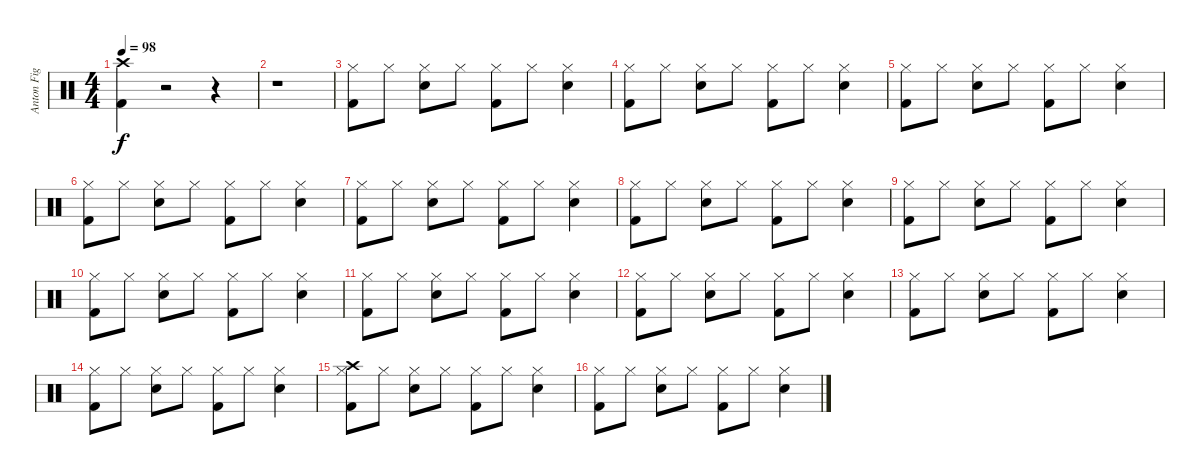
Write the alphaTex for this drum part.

\track ("Anton Fig" "Anton Fig") {instrument percussion}
\staff {score}
\articulation defaults
\ts (4 4)
\tempo 98
\clef neutral
\ks c
("Crash high (hit)" "Kick (hit) 2").4{dy f} r.2 r.4 |
r.1 |
("Hi-Hat (closed)" "Kick (hit) 2").8 "Hi-Hat (closed)".8 ("Hi-Hat (closed)" "Snare (hit) 2").8 "Hi-Hat (closed)".8 ("Hi-Hat (closed)" "Kick (hit) 2").8 "Hi-Hat (closed)".8 ("Hi-Hat (closed)" "Snare (hit) 2").4 |
("Hi-Hat (closed)" "Kick (hit) 2").8 "Hi-Hat (closed)".8 ("Hi-Hat (closed)" "Snare (hit) 2").8 "Hi-Hat (closed)".8 ("Hi-Hat (closed)" "Kick (hit) 2").8 "Hi-Hat (closed)".8 ("Hi-Hat (closed)" "Snare (hit) 2").4 |
("Hi-Hat (closed)" "Kick (hit) 2").8 "Hi-Hat (closed)".8 ("Hi-Hat (closed)" "Snare (hit) 2").8 "Hi-Hat (closed)".8 ("Hi-Hat (closed)" "Kick (hit) 2").8 "Hi-Hat (closed)".8 ("Hi-Hat (closed)" "Snare (hit) 2").4 |
("Hi-Hat (closed)" "Kick (hit) 2").8 "Hi-Hat (closed)".8 ("Hi-Hat (closed)" "Snare (hit) 2").8 "Hi-Hat (closed)".8 ("Hi-Hat (closed)" "Kick (hit) 2").8 "Hi-Hat (closed)".8 ("Hi-Hat (closed)" "Snare (hit) 2").4 |
("Hi-Hat (closed)" "Kick (hit) 2").8 "Hi-Hat (closed)".8 ("Hi-Hat (closed)" "Snare (hit) 2").8 "Hi-Hat (closed)".8 ("Hi-Hat (closed)" "Kick (hit) 2").8 "Hi-Hat (closed)".8 ("Hi-Hat (closed)" "Snare (hit) 2").4 |
("Hi-Hat (closed)" "Kick (hit) 2").8 "Hi-Hat (closed)".8 ("Hi-Hat (closed)" "Snare (hit) 2").8 "Hi-Hat (closed)".8 ("Hi-Hat (closed)" "Kick (hit) 2").8 "Hi-Hat (closed)".8 ("Hi-Hat (closed)" "Snare (hit) 2").4 |
("Hi-Hat (closed)" "Kick (hit) 2").8 "Hi-Hat (closed)".8 ("Hi-Hat (closed)" "Snare (hit) 2").8 "Hi-Hat (closed)".8 ("Hi-Hat (closed)" "Kick (hit) 2").8 "Hi-Hat (closed)".8 ("Hi-Hat (closed)" "Snare (hit) 2").4 |
("Hi-Hat (closed)" "Kick (hit) 2").8 "Hi-Hat (closed)".8 ("Hi-Hat (closed)" "Snare (hit) 2").8 "Hi-Hat (closed)".8 ("Hi-Hat (closed)" "Kick (hit) 2").8 "Hi-Hat (closed)".8 ("Hi-Hat (closed)" "Snare (hit) 2").4 |
("Hi-Hat (closed)" "Kick (hit) 2").8 "Hi-Hat (closed)".8 ("Hi-Hat (closed)" "Snare (hit) 2").8 "Hi-Hat (closed)".8 ("Hi-Hat (closed)" "Kick (hit) 2").8 "Hi-Hat (closed)".8 ("Hi-Hat (closed)" "Snare (hit) 2").4 |
("Hi-Hat (closed)" "Kick (hit) 2").8 "Hi-Hat (closed)".8 ("Hi-Hat (closed)" "Snare (hit) 2").8 "Hi-Hat (closed)".8 ("Hi-Hat (closed)" "Kick (hit) 2").8 "Hi-Hat (closed)".8 ("Hi-Hat (closed)" "Snare (hit) 2").4 |
("Hi-Hat (closed)" "Kick (hit) 2").8 "Hi-Hat (closed)".8 ("Hi-Hat (closed)" "Snare (hit) 2").8 "Hi-Hat (closed)".8 ("Hi-Hat (closed)" "Kick (hit) 2").8 "Hi-Hat (closed)".8 ("Hi-Hat (closed)" "Snare (hit) 2").4 |
("Hi-Hat (closed)" "Kick (hit) 2").8 "Hi-Hat (closed)".8 ("Hi-Hat (closed)" "Snare (hit) 2").8 "Hi-Hat (closed)".8 ("Hi-Hat (closed)" "Kick (hit) 2").8 "Hi-Hat (closed)".8 ("Hi-Hat (closed)" "Snare (hit) 2").4 |
("Hi-Hat (closed)" "Crash high (hit)" "Kick (hit) 2").8 "Hi-Hat (closed)".8 ("Hi-Hat (closed)" "Snare (hit) 2").8 "Hi-Hat (closed)".8 ("Hi-Hat (closed)" "Kick (hit) 2").8 "Hi-Hat (closed)".8 ("Hi-Hat (closed)" "Snare (hit) 2").4 |
("Hi-Hat (closed)" "Kick (hit) 2").8 "Hi-Hat (closed)".8 ("Hi-Hat (closed)" "Snare (hit) 2").8 "Hi-Hat (closed)".8 ("Hi-Hat (closed)" "Kick (hit) 2").8 "Hi-Hat (closed)".8 ("Hi-Hat (closed)" "Snare (hit) 2").4
